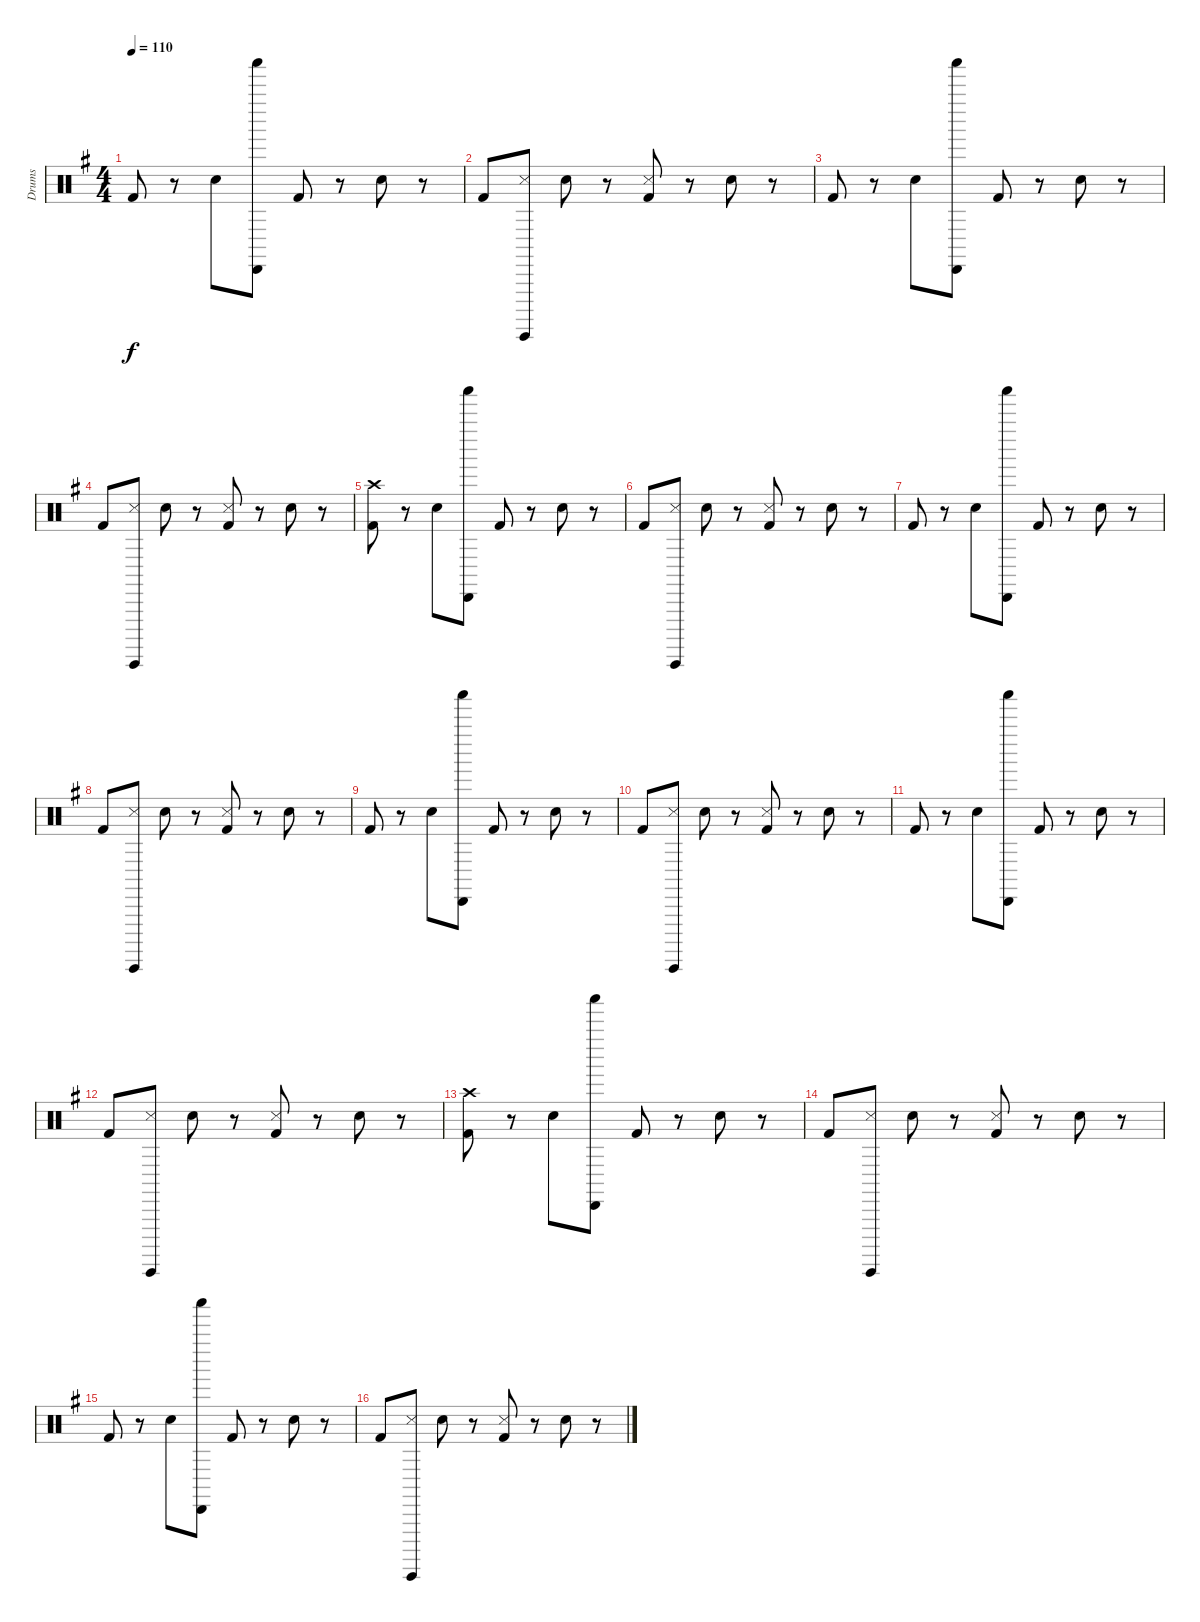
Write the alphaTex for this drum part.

\track ("Drums" "Drums") {instrument percussion}
\staff {score}
\articulation defaults
\ts (4 4)
\tempo 110
\clef neutral
\ks eminor "Kick (hit) 2".8{dy f}
r.8 "Electric Snare (hit)".8 ("Shaker (hit)" "Cabasa (hit)").8 "Kick (hit) 2".8 r.8 "Electric Snare (hit)".8 r.8 |
"Kick (hit) 2".8 ("Snare (side stick) 3" "Guiro (hit)").8 "Electric Snare (hit)".8 r.8 ("Snare (side stick) 3" "Kick (hit) 2").8 r.8 "Electric Snare (hit)".8 r.8 |
"Kick (hit) 2".8 r.8 "Electric Snare (hit)".8 ("Shaker (hit)" "Cabasa (hit)").8 "Kick (hit) 2".8 r.8 "Electric Snare (hit)".8 r.8 |
"Kick (hit) 2".8 ("Snare (side stick) 3" "Guiro (hit)").8 "Electric Snare (hit)".8 r.8 ("Snare (side stick) 3" "Kick (hit) 2").8 r.8 "Electric Snare (hit)".8 r.8 |
("Crash high (hit)" "Kick (hit) 2").8 r.8 "Electric Snare (hit)".8 ("Shaker (hit)" "Cabasa (hit)").8 "Kick (hit) 2".8 r.8 "Electric Snare (hit)".8 r.8 |
"Kick (hit) 2".8 ("Snare (side stick) 3" "Guiro (hit)").8 "Electric Snare (hit)".8 r.8 ("Snare (side stick) 3" "Kick (hit) 2").8 r.8 "Electric Snare (hit)".8 r.8 |
"Kick (hit) 2".8 r.8 "Electric Snare (hit)".8 ("Shaker (hit)" "Cabasa (hit)").8 "Kick (hit) 2".8 r.8 "Electric Snare (hit)".8 r.8 |
"Kick (hit) 2".8 ("Snare (side stick) 3" "Guiro (hit)").8 "Electric Snare (hit)".8 r.8 ("Snare (side stick) 3" "Kick (hit) 2").8 r.8 "Electric Snare (hit)".8 r.8 |
"Kick (hit) 2".8 r.8 "Electric Snare (hit)".8 ("Shaker (hit)" "Cabasa (hit)").8 "Kick (hit) 2".8 r.8 "Electric Snare (hit)".8 r.8 |
"Kick (hit) 2".8 ("Snare (side stick) 3" "Guiro (hit)").8 "Electric Snare (hit)".8 r.8 ("Snare (side stick) 3" "Kick (hit) 2").8 r.8 "Electric Snare (hit)".8 r.8 |
"Kick (hit) 2".8 r.8 "Electric Snare (hit)".8 ("Shaker (hit)" "Cabasa (hit)").8 "Kick (hit) 2".8 r.8 "Electric Snare (hit)".8 r.8 |
"Kick (hit) 2".8 ("Snare (side stick) 3" "Guiro (hit)").8 "Electric Snare (hit)".8 r.8 ("Snare (side stick) 3" "Kick (hit) 2").8 r.8 "Electric Snare (hit)".8 r.8 |
("Crash high (hit)" "Kick (hit) 2").8 r.8 "Electric Snare (hit)".8 ("Shaker (hit)" "Cabasa (hit)").8 "Kick (hit) 2".8 r.8 "Electric Snare (hit)".8 r.8 |
"Kick (hit) 2".8 ("Snare (side stick) 3" "Guiro (hit)").8 "Electric Snare (hit)".8 r.8 ("Snare (side stick) 3" "Kick (hit) 2").8 r.8 "Electric Snare (hit)".8 r.8 |
"Kick (hit) 2".8 r.8 "Electric Snare (hit)".8 ("Shaker (hit)" "Cabasa (hit)").8 "Kick (hit) 2".8 r.8 "Electric Snare (hit)".8 r.8 |
"Kick (hit) 2".8 ("Snare (side stick) 3" "Guiro (hit)").8 "Electric Snare (hit)".8 r.8 ("Snare (side stick) 3" "Kick (hit) 2").8 r.8 "Electric Snare (hit)".8 r.8
